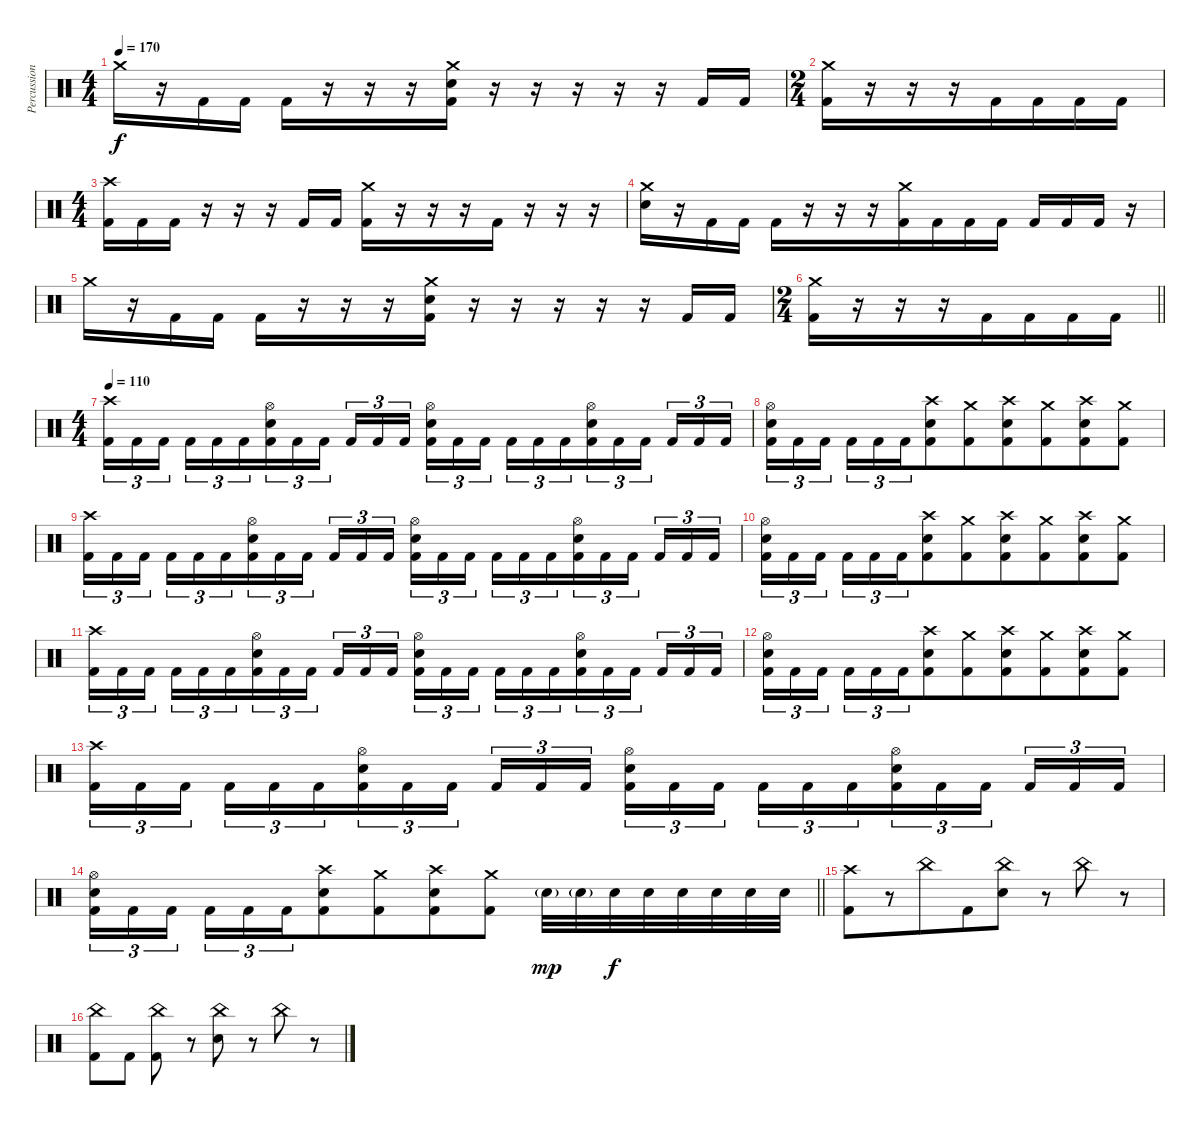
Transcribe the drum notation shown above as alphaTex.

\track ("Percussion" "Percussion") {instrument percussion}
\staff {score}
\articulation defaults
\ts (4 4)
\tempo 170
\clef neutral
\ks c "Crash medium (hit)".16{dy f}
r.16 "Kick (hit) 2".16 "Kick (hit) 2".16 "Kick (hit) 2".16{beam merge} r.16 r.16{beam merge} r.16 ("Crash medium (hit)" "Electric Snare (hit)" "Kick (hit) 2").16 r.16{beam merge} r.16{beam merge} r.16 r.16 r.16 "Kick (hit) 2".16 "Kick (hit) 2".16 |
\ts (2 4)
("Crash medium (hit)" "Kick (hit) 2").16{beam merge} r.16 r.16 r.16 "Kick (hit) 2".16 "Kick (hit) 2".16 "Kick (hit) 2".16{beam merge} "Kick (hit) 2".16 |
\ts (4 4)
("Crash high (hit)" "Kick (hit) 2").16{beam merge} "Kick (hit) 2".16 "Kick (hit) 2".16 r.16 r.16 r.16 "Kick (hit) 2".16{beam merge} "Kick (hit) 2".16 ("Crash medium (hit)" "Kick (hit) 2").16{beam merge} r.16 r.16 r.16{beam merge} "Kick (hit) 2".16{beam merge} r.16{beam merge} r.16{beam merge} r.16 |
("Crash medium (hit)" "Electric Snare (hit)").16 r.16{beam merge} "Kick (hit) 2".16 "Kick (hit) 2".16 "Kick (hit) 2".16{beam merge} r.16 r.16 r.16 ("Crash medium (hit)" "Kick (hit) 2").16{beam merge} "Kick (hit) 2".16{beam merge} "Kick (hit) 2".16{beam merge} "Kick (hit) 2".16 "Kick (hit) 2".16{beam merge} "Kick (hit) 2".16{beam merge} "Kick (hit) 2".16 r.16 |
"Crash medium (hit)".16 r.16 "Kick (hit) 2".16 "Kick (hit) 2".16 "Kick (hit) 2".16{beam merge} r.16 r.16{beam merge} r.16 ("Crash medium (hit)" "Electric Snare (hit)" "Kick (hit) 2").16 r.16{beam merge} r.16{beam merge} r.16 r.16 r.16 "Kick (hit) 2".16 "Kick (hit) 2".16 |
\ts (2 4)
\barLineRight lightlight
("Crash medium (hit)" "Kick (hit) 2").16{beam merge} r.16 r.16 r.16 "Kick (hit) 2".16 "Kick (hit) 2".16 "Kick (hit) 2".16{beam merge} "Kick (hit) 2".16 |
\ts (4 4)
\section ("" "")
\tempo 110
("Crash high (hit)" "Kick (hit) 2").16{tu (3 2)} "Kick (hit) 2".16{tu (3 2) beam merge} "Kick (hit) 2".16{tu (3 2) beam splitsecondary} "Kick (hit) 2".16{tu (3 2)} "Kick (hit) 2".16{tu (3 2) beam merge} "Kick (hit) 2".16{tu (3 2) beam merge} ("Hi-Hat (open)" "Electric Snare (hit)" "Kick (hit) 2").16{tu (3 2) beam merge} "Kick (hit) 2".16{tu (3 2) beam merge} "Kick (hit) 2".16{tu (3 2) beam splitsecondary} "Kick (hit) 2".16{tu (3 2)} "Kick (hit) 2".16{tu (3 2)} "Kick (hit) 2".16{tu (3 2)} ("Hi-Hat (open)" "Electric Snare (hit)" "Kick (hit) 2").16{tu (3 2) beam merge} "Kick (hit) 2".16{tu (3 2)} "Kick (hit) 2".16{tu (3 2) beam splitsecondary} "Kick (hit) 2".16{tu (3 2) beam merge} "Kick (hit) 2".16{tu (3 2) beam merge} "Kick (hit) 2".16{tu (3 2) beam merge} ("Hi-Hat (open)" "Electric Snare (hit)" "Kick (hit) 2").16{tu (3 2) beam merge} "Kick (hit) 2".16{tu (3 2) beam merge} "Kick (hit) 2".16{tu (3 2) beam splitsecondary} "Kick (hit) 2".16{tu (3 2) beam merge} "Kick (hit) 2".16{tu (3 2) beam merge} "Kick (hit) 2".16{tu (3 2)} |
("Hi-Hat (open)" "Electric Snare (hit)" "Kick (hit) 2").16{tu (3 2) beam merge} "Kick (hit) 2".16{tu (3 2)} "Kick (hit) 2".16{tu (3 2) beam splitsecondary} "Kick (hit) 2".16{tu (3 2)} "Kick (hit) 2".16{tu (3 2)} "Kick (hit) 2".16{tu (3 2) beam merge} ("Crash high (hit)" "Electric Snare (hit)" "Kick (hit) 2").8{beam merge} ("Crash medium (hit)" "Kick (hit) 2").8{beam merge} ("Crash high (hit)" "Electric Snare (hit)" "Kick (hit) 2").8{beam merge} ("Crash medium (hit)" "Kick (hit) 2").8{beam merge} ("Crash high (hit)" "Electric Snare (hit)" "Kick (hit) 2").8{beam merge} ("Crash medium (hit)" "Kick (hit) 2").8 |
("Crash high (hit)" "Kick (hit) 2").16{tu (3 2)} "Kick (hit) 2".16{tu (3 2) beam merge} "Kick (hit) 2".16{tu (3 2) beam splitsecondary} "Kick (hit) 2".16{tu (3 2)} "Kick (hit) 2".16{tu (3 2) beam merge} "Kick (hit) 2".16{tu (3 2) beam merge} ("Hi-Hat (open)" "Electric Snare (hit)" "Kick (hit) 2").16{tu (3 2) beam merge} "Kick (hit) 2".16{tu (3 2) beam merge} "Kick (hit) 2".16{tu (3 2) beam splitsecondary} "Kick (hit) 2".16{tu (3 2)} "Kick (hit) 2".16{tu (3 2)} "Kick (hit) 2".16{tu (3 2)} ("Hi-Hat (open)" "Electric Snare (hit)" "Kick (hit) 2").16{tu (3 2) beam merge} "Kick (hit) 2".16{tu (3 2)} "Kick (hit) 2".16{tu (3 2) beam splitsecondary} "Kick (hit) 2".16{tu (3 2) beam merge} "Kick (hit) 2".16{tu (3 2) beam merge} "Kick (hit) 2".16{tu (3 2) beam merge} ("Hi-Hat (open)" "Electric Snare (hit)" "Kick (hit) 2").16{tu (3 2) beam merge} "Kick (hit) 2".16{tu (3 2) beam merge} "Kick (hit) 2".16{tu (3 2) beam splitsecondary} "Kick (hit) 2".16{tu (3 2) beam merge} "Kick (hit) 2".16{tu (3 2) beam merge} "Kick (hit) 2".16{tu (3 2)} |
("Hi-Hat (open)" "Electric Snare (hit)" "Kick (hit) 2").16{tu (3 2) beam merge} "Kick (hit) 2".16{tu (3 2)} "Kick (hit) 2".16{tu (3 2) beam splitsecondary} "Kick (hit) 2".16{tu (3 2)} "Kick (hit) 2".16{tu (3 2)} "Kick (hit) 2".16{tu (3 2) beam merge} ("Crash high (hit)" "Electric Snare (hit)" "Kick (hit) 2").8{beam merge} ("Crash medium (hit)" "Kick (hit) 2").8{beam merge} ("Crash high (hit)" "Electric Snare (hit)" "Kick (hit) 2").8{beam merge} ("Crash medium (hit)" "Kick (hit) 2").8{beam merge} ("Crash high (hit)" "Electric Snare (hit)" "Kick (hit) 2").8{beam merge} ("Crash medium (hit)" "Kick (hit) 2").8 |
("Crash high (hit)" "Kick (hit) 2").16{tu (3 2)} "Kick (hit) 2".16{tu (3 2) beam merge} "Kick (hit) 2".16{tu (3 2) beam splitsecondary} "Kick (hit) 2".16{tu (3 2)} "Kick (hit) 2".16{tu (3 2) beam merge} "Kick (hit) 2".16{tu (3 2) beam merge} ("Hi-Hat (open)" "Electric Snare (hit)" "Kick (hit) 2").16{tu (3 2) beam merge} "Kick (hit) 2".16{tu (3 2) beam merge} "Kick (hit) 2".16{tu (3 2) beam splitsecondary} "Kick (hit) 2".16{tu (3 2)} "Kick (hit) 2".16{tu (3 2)} "Kick (hit) 2".16{tu (3 2)} ("Hi-Hat (open)" "Electric Snare (hit)" "Kick (hit) 2").16{tu (3 2) beam merge} "Kick (hit) 2".16{tu (3 2)} "Kick (hit) 2".16{tu (3 2) beam splitsecondary} "Kick (hit) 2".16{tu (3 2) beam merge} "Kick (hit) 2".16{tu (3 2) beam merge} "Kick (hit) 2".16{tu (3 2) beam merge} ("Hi-Hat (open)" "Electric Snare (hit)" "Kick (hit) 2").16{tu (3 2) beam merge} "Kick (hit) 2".16{tu (3 2) beam merge} "Kick (hit) 2".16{tu (3 2) beam splitsecondary} "Kick (hit) 2".16{tu (3 2) beam merge} "Kick (hit) 2".16{tu (3 2) beam merge} "Kick (hit) 2".16{tu (3 2)} |
("Hi-Hat (open)" "Electric Snare (hit)" "Kick (hit) 2").16{tu (3 2) beam merge} "Kick (hit) 2".16{tu (3 2)} "Kick (hit) 2".16{tu (3 2) beam splitsecondary} "Kick (hit) 2".16{tu (3 2)} "Kick (hit) 2".16{tu (3 2)} "Kick (hit) 2".16{tu (3 2) beam merge} ("Crash high (hit)" "Electric Snare (hit)" "Kick (hit) 2").8{beam merge} ("Crash medium (hit)" "Kick (hit) 2").8{beam merge} ("Crash high (hit)" "Electric Snare (hit)" "Kick (hit) 2").8{beam merge} ("Crash medium (hit)" "Kick (hit) 2").8{beam merge} ("Crash high (hit)" "Electric Snare (hit)" "Kick (hit) 2").8{beam merge} ("Crash medium (hit)" "Kick (hit) 2").8 |
("Crash high (hit)" "Kick (hit) 2").16{tu (3 2)} "Kick (hit) 2".16{tu (3 2) beam merge} "Kick (hit) 2".16{tu (3 2) beam splitsecondary} "Kick (hit) 2".16{tu (3 2)} "Kick (hit) 2".16{tu (3 2) beam merge} "Kick (hit) 2".16{tu (3 2) beam merge} ("Hi-Hat (open)" "Electric Snare (hit)" "Kick (hit) 2").16{tu (3 2) beam merge} "Kick (hit) 2".16{tu (3 2) beam merge} "Kick (hit) 2".16{tu (3 2) beam splitsecondary} "Kick (hit) 2".16{tu (3 2)} "Kick (hit) 2".16{tu (3 2)} "Kick (hit) 2".16{tu (3 2)} ("Hi-Hat (open)" "Electric Snare (hit)" "Kick (hit) 2").16{tu (3 2) beam merge} "Kick (hit) 2".16{tu (3 2)} "Kick (hit) 2".16{tu (3 2) beam splitsecondary} "Kick (hit) 2".16{tu (3 2) beam merge} "Kick (hit) 2".16{tu (3 2) beam merge} "Kick (hit) 2".16{tu (3 2) beam merge} ("Hi-Hat (open)" "Electric Snare (hit)" "Kick (hit) 2").16{tu (3 2) beam merge} "Kick (hit) 2".16{tu (3 2) beam merge} "Kick (hit) 2".16{tu (3 2) beam splitsecondary} "Kick (hit) 2".16{tu (3 2) beam merge} "Kick (hit) 2".16{tu (3 2) beam merge} "Kick (hit) 2".16{tu (3 2)} |
\barLineRight lightlight
("Hi-Hat (open)" "Electric Snare (hit)" "Kick (hit) 2").16{tu (3 2) beam merge} "Kick (hit) 2".16{tu (3 2)} "Kick (hit) 2".16{tu (3 2) beam splitsecondary} "Kick (hit) 2".16{tu (3 2)} "Kick (hit) 2".16{tu (3 2)} "Kick (hit) 2".16{tu (3 2) beam merge} ("Crash high (hit)" "Electric Snare (hit)" "Kick (hit) 2").8{beam merge} ("Crash medium (hit)" "Kick (hit) 2").8{beam merge} ("Crash high (hit)" "Electric Snare (hit)" "Kick (hit) 2").8{beam merge} ("Crash medium (hit)" "Kick (hit) 2").8 "Electric Snare (hit)"{g}.32{dy mp beam merge} "Electric Snare (hit)"{g}.32 "Electric Snare (hit)".32{dy f} "Electric Snare (hit)".32 "Electric Snare (hit)".32{beam merge} "Electric Snare (hit)".32 "Electric Snare (hit)".32{beam merge} "Electric Snare (hit)".32 |
\section ("" "")
("Crash high (hit)" "Kick (hit) 2").8{beam merge} r.8 "China (hit)".8 "Kick (hit) 2".8{beam merge} ("China (hit)" "Electric Snare (hit)").8 r.8{beam merge} "China (hit)".8{beam merge} r.8 |
("China (hit)" "Kick (hit) 2").8{beam merge} "Kick (hit) 2".8 ("China (hit)" "Kick (hit) 2").8 r.8{beam merge} ("China (hit)" "Electric Snare (hit)").8 r.8{beam merge} "China (hit)".8{beam merge} r.8
